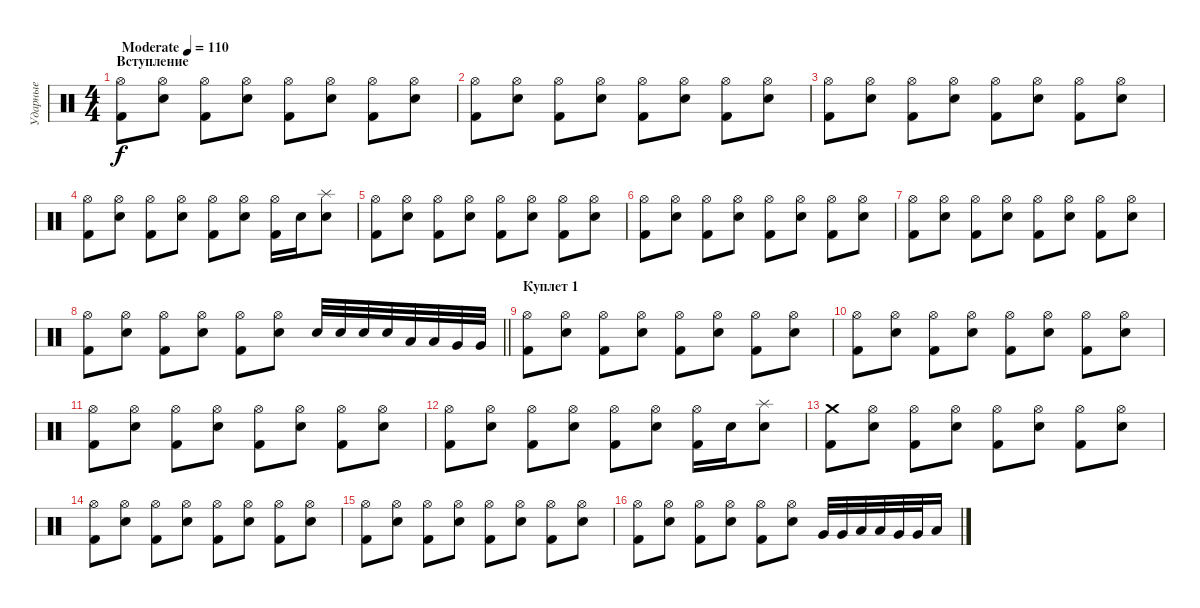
\track ("Ударные" "Ударные") {instrument percussion}
\staff {score}
\articulation defaults
\ts (4 4)
\section ("" "Вступление")
\tempo (110 "Moderate")
\clef neutral
\ks c
("Hi-Hat (open)" "Kick (hit) 2").8{dy f} ("Hi-Hat (open)" "Snare (hit) 2").8 ("Hi-Hat (open)" "Kick (hit) 2").8 ("Hi-Hat (open)" "Snare (hit) 2").8 ("Hi-Hat (open)" "Kick (hit) 2").8 ("Hi-Hat (open)" "Snare (hit) 2").8 ("Hi-Hat (open)" "Kick (hit) 2").8 ("Hi-Hat (open)" "Snare (hit) 2").8 |
("Hi-Hat (open)" "Kick (hit) 2").8 ("Hi-Hat (open)" "Snare (hit) 2").8 ("Hi-Hat (open)" "Kick (hit) 2").8 ("Hi-Hat (open)" "Snare (hit) 2").8 ("Hi-Hat (open)" "Kick (hit) 2").8 ("Hi-Hat (open)" "Snare (hit) 2").8 ("Hi-Hat (open)" "Kick (hit) 2").8 ("Hi-Hat (open)" "Snare (hit) 2").8 |
("Hi-Hat (open)" "Kick (hit) 2").8 ("Hi-Hat (open)" "Snare (hit) 2").8 ("Hi-Hat (open)" "Kick (hit) 2").8 ("Hi-Hat (open)" "Snare (hit) 2").8 ("Hi-Hat (open)" "Kick (hit) 2").8 ("Hi-Hat (open)" "Snare (hit) 2").8 ("Hi-Hat (open)" "Kick (hit) 2").8 ("Hi-Hat (open)" "Snare (hit) 2").8 |
("Hi-Hat (open)" "Kick (hit) 2").8 ("Hi-Hat (open)" "Snare (hit) 2").8 ("Hi-Hat (open)" "Kick (hit) 2").8 ("Hi-Hat (open)" "Snare (hit) 2").8 ("Hi-Hat (open)" "Kick (hit) 2").8 ("Hi-Hat (open)" "Snare (hit) 2").8 ("Hi-Hat (open)" "Kick (hit) 2").16 "Snare (hit) 2".16 ("Splash (hit)" "Snare (hit) 2").8 |
("Hi-Hat (open)" "Kick (hit) 2").8 ("Hi-Hat (open)" "Snare (hit) 2").8 ("Hi-Hat (open)" "Kick (hit) 2").8 ("Hi-Hat (open)" "Snare (hit) 2").8 ("Hi-Hat (open)" "Kick (hit) 2").8 ("Hi-Hat (open)" "Snare (hit) 2").8 ("Hi-Hat (open)" "Kick (hit) 2").8 ("Hi-Hat (open)" "Snare (hit) 2").8 |
("Hi-Hat (open)" "Kick (hit) 2").8 ("Hi-Hat (open)" "Snare (hit) 2").8 ("Hi-Hat (open)" "Kick (hit) 2").8 ("Hi-Hat (open)" "Snare (hit) 2").8 ("Hi-Hat (open)" "Kick (hit) 2").8 ("Hi-Hat (open)" "Snare (hit) 2").8 ("Hi-Hat (open)" "Kick (hit) 2").8 ("Hi-Hat (open)" "Snare (hit) 2").8 |
("Hi-Hat (open)" "Kick (hit) 2").8 ("Hi-Hat (open)" "Snare (hit) 2").8 ("Hi-Hat (open)" "Kick (hit) 2").8 ("Hi-Hat (open)" "Snare (hit) 2").8 ("Hi-Hat (open)" "Kick (hit) 2").8 ("Hi-Hat (open)" "Snare (hit) 2").8 ("Hi-Hat (open)" "Kick (hit) 2").8 ("Hi-Hat (open)" "Snare (hit) 2").8 |
\barLineRight lightlight
("Hi-Hat (open)" "Kick (hit) 2").8 ("Hi-Hat (open)" "Snare (hit) 2").8 ("Hi-Hat (open)" "Kick (hit) 2").8 ("Hi-Hat (open)" "Snare (hit) 2").8 ("Hi-Hat (open)" "Kick (hit) 2").8 ("Hi-Hat (open)" "Snare (hit) 2").8 "Snare (hit) 2".32 "Snare (hit) 2".32 "Snare (hit) 2".32 "Snare (hit) 2".32 "Low Tom (hit)".32 "Low Tom (hit)".32 "Very Low Tom (hit)".32 "Very Low Tom (hit)".32 |
\section ("" "Куплет 1")
("Hi-Hat (open)" "Kick (hit) 2").8 ("Hi-Hat (open)" "Snare (hit) 2").8 ("Hi-Hat (open)" "Kick (hit) 2").8 ("Hi-Hat (open)" "Snare (hit) 2").8 ("Hi-Hat (open)" "Kick (hit) 2").8 ("Hi-Hat (open)" "Snare (hit) 2").8 ("Hi-Hat (open)" "Kick (hit) 2").8 ("Hi-Hat (open)" "Snare (hit) 2").8 |
("Hi-Hat (open)" "Kick (hit) 2").8 ("Hi-Hat (open)" "Snare (hit) 2").8 ("Hi-Hat (open)" "Kick (hit) 2").8 ("Hi-Hat (open)" "Snare (hit) 2").8 ("Hi-Hat (open)" "Kick (hit) 2").8 ("Hi-Hat (open)" "Snare (hit) 2").8 ("Hi-Hat (open)" "Kick (hit) 2").8 ("Hi-Hat (open)" "Snare (hit) 2").8 |
("Hi-Hat (open)" "Kick (hit) 2").8 ("Hi-Hat (open)" "Snare (hit) 2").8 ("Hi-Hat (open)" "Kick (hit) 2").8 ("Hi-Hat (open)" "Snare (hit) 2").8 ("Hi-Hat (open)" "Kick (hit) 2").8 ("Hi-Hat (open)" "Snare (hit) 2").8 ("Hi-Hat (open)" "Kick (hit) 2").8 ("Hi-Hat (open)" "Snare (hit) 2").8 |
("Hi-Hat (open)" "Kick (hit) 2").8 ("Hi-Hat (open)" "Snare (hit) 2").8 ("Hi-Hat (open)" "Kick (hit) 2").8 ("Hi-Hat (open)" "Snare (hit) 2").8 ("Hi-Hat (open)" "Kick (hit) 2").8 ("Hi-Hat (open)" "Snare (hit) 2").8 ("Hi-Hat (open)" "Kick (hit) 2").16 "Snare (hit) 2".16 ("Splash (hit)" "Snare (hit) 2").8 |
("Crash medium (hit)" "Kick (hit) 2").8 ("Hi-Hat (open)" "Snare (hit) 2").8 ("Hi-Hat (open)" "Kick (hit) 2").8 ("Hi-Hat (open)" "Snare (hit) 2").8 ("Hi-Hat (open)" "Kick (hit) 2").8 ("Hi-Hat (open)" "Snare (hit) 2").8 ("Hi-Hat (open)" "Kick (hit) 2").8 ("Hi-Hat (open)" "Snare (hit) 2").8 |
("Hi-Hat (open)" "Kick (hit) 2").8 ("Hi-Hat (open)" "Snare (hit) 2").8 ("Hi-Hat (open)" "Kick (hit) 2").8 ("Hi-Hat (open)" "Snare (hit) 2").8 ("Hi-Hat (open)" "Kick (hit) 2").8 ("Hi-Hat (open)" "Snare (hit) 2").8 ("Hi-Hat (open)" "Kick (hit) 2").8 ("Hi-Hat (open)" "Snare (hit) 2").8 |
("Hi-Hat (open)" "Kick (hit) 2").8 ("Hi-Hat (open)" "Snare (hit) 2").8 ("Hi-Hat (open)" "Kick (hit) 2").8 ("Hi-Hat (open)" "Snare (hit) 2").8 ("Hi-Hat (open)" "Kick (hit) 2").8 ("Hi-Hat (open)" "Snare (hit) 2").8 ("Hi-Hat (open)" "Kick (hit) 2").8 ("Hi-Hat (open)" "Snare (hit) 2").8 |
("Hi-Hat (open)" "Kick (hit) 2").8 ("Hi-Hat (open)" "Snare (hit) 2").8 ("Hi-Hat (open)" "Kick (hit) 2").8 ("Hi-Hat (open)" "Snare (hit) 2").8 ("Hi-Hat (open)" "Kick (hit) 2").8 ("Hi-Hat (open)" "Snare (hit) 2").8 "Very Low Tom (hit)".32 "Very Low Tom (hit)".32 "Low Tom (hit)".32 "Low Tom (hit)".32 "Very Low Tom (hit)".32 "Very Low Tom (hit)".32 "Low Floor Tom (hit)".16
